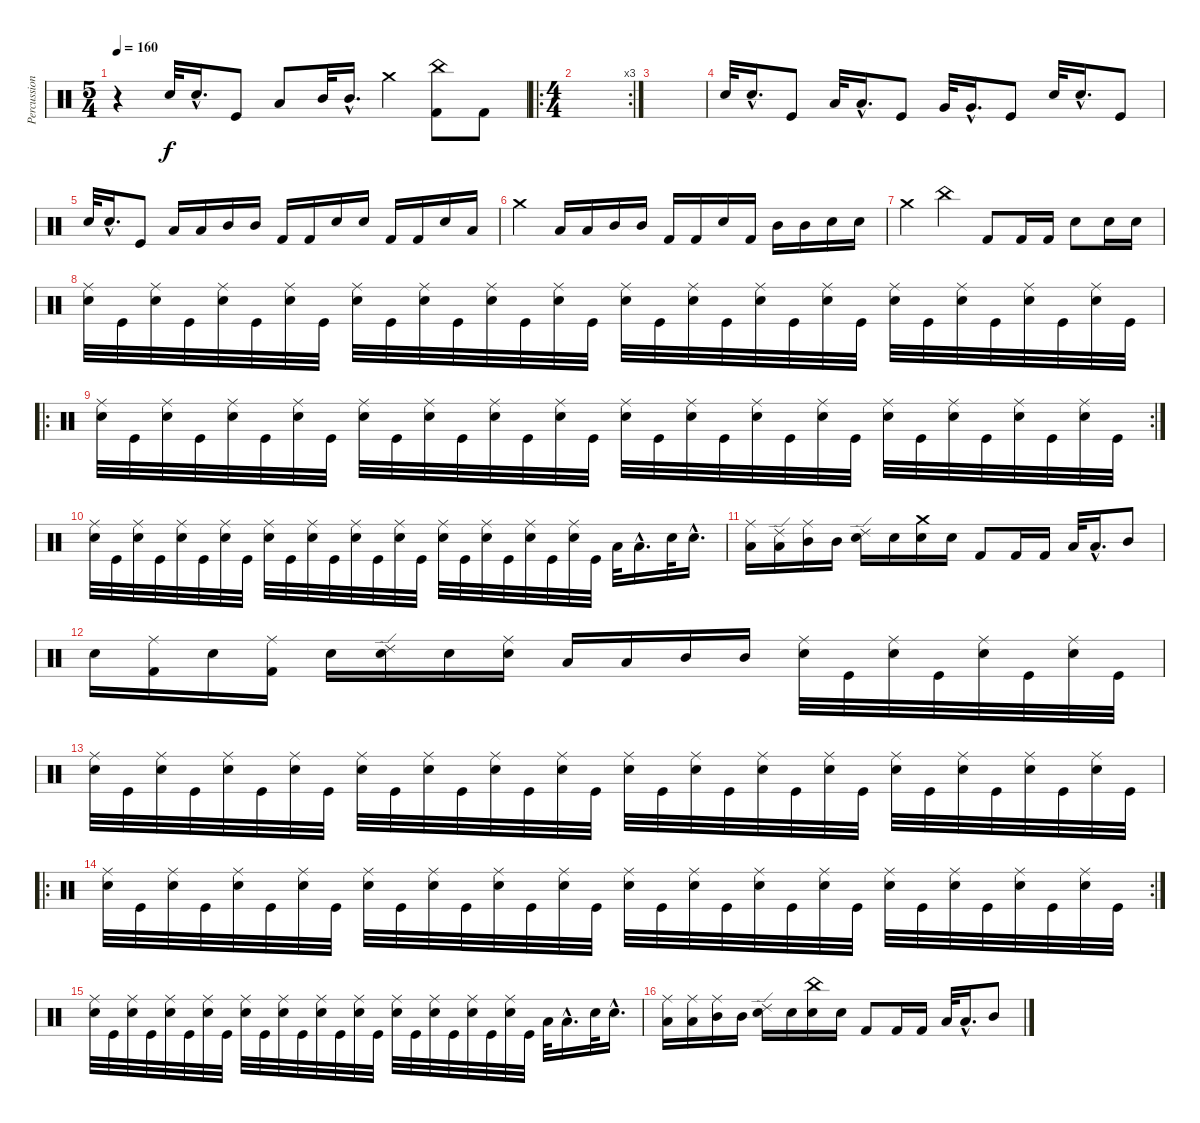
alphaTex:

\track ("Percussion" "Percussion") {instrument percussion}
\staff {score}
\articulation defaults
\ts (5 4)
\tempo 160
\clef neutral
\ks c
r.4{dy f} "Electric Snare (hit)".32 "Electric Snare (hit)"{hac}.16{d} "Kick (hit)".8 "Low Tom (hit)".8 "Mid Tom (hit)".32 "Mid Tom (hit)"{hac}.16{d} "Crash medium (hit)".4 ("China (hit)" "Kick (hit) 2").8 "Kick (hit) 2".8 |
\ro
\rc 3
\ts (4 4)
|
|
"Electric Snare (hit)".32 "Electric Snare (hit)"{hac}.16{d} "Kick (hit)".8 "Low Tom (hit)".32 "Low Tom (hit)"{hac}.16{d} "Kick (hit)".8 "Very Low Tom (hit)".32 "Very Low Tom (hit)"{hac}.16{d} "Kick (hit)".8 "Electric Snare (hit)".32 "Electric Snare (hit)"{hac}.16{d} "Kick (hit)".8 |
"Electric Snare (hit)".32 "Electric Snare (hit)"{hac}.16{d} "Kick (hit)".8 "Low Tom (hit)".16 "Low Tom (hit)".16 "Mid Tom (hit)".16 "Mid Tom (hit)".16 "Kick (hit) 2".16 "Kick (hit) 2".16 "Electric Snare (hit)".16 "Electric Snare (hit)".16 "Kick (hit) 2".16 "Kick (hit) 2".16 "Electric Snare (hit)".16 "Low Floor Tom (hit)".16 |
"Crash medium (hit)".4 "Low Tom (hit)".16 "Low Tom (hit)".16 "Mid Tom (hit)".16 "Mid Tom (hit)".16 "Kick (hit) 2".16 "Kick (hit) 2".16 "Electric Snare (hit)".16 "Kick (hit) 2".16 "Mid Tom (hit)".16 "Mid Tom (hit)".16 "Electric Snare (hit)".16 "Electric Snare (hit)".16 |
"Crash medium (hit)".4 "China (hit)".4 "Kick (hit) 2".8 "Kick (hit) 2".16 "Kick (hit) 2".16 "Electric Snare (hit)".8 "Electric Snare (hit)".16 "Electric Snare (hit)".16 |
("Ride (middle)" "Electric Snare (hit)").32 "Kick (hit)".32 ("Ride (middle)" "Electric Snare (hit)").32 "Kick (hit)".32 ("Ride (middle)" "Electric Snare (hit)").32 "Kick (hit)".32 ("Ride (middle)" "Electric Snare (hit)").32 "Kick (hit)".32 ("Ride (middle)" "Electric Snare (hit)").32 "Kick (hit)".32 ("Ride (middle)" "Electric Snare (hit)").32 "Kick (hit)".32 ("Ride (middle)" "Electric Snare (hit)").32 "Kick (hit)".32 ("Ride (middle)" "Electric Snare (hit)").32 "Kick (hit)".32 ("Ride (middle)" "Electric Snare (hit)").32 "Kick (hit)".32 ("Ride (middle)" "Electric Snare (hit)").32 "Kick (hit)".32 ("Ride (middle)" "Electric Snare (hit)").32 "Kick (hit)".32 ("Ride (middle)" "Electric Snare (hit)").32 "Kick (hit)".32 ("Ride (middle)" "Electric Snare (hit)").32 "Kick (hit)".32 ("Ride (middle)" "Electric Snare (hit)").32 "Kick (hit)".32 ("Ride (middle)" "Electric Snare (hit)").32 "Kick (hit)".32 ("Ride (middle)" "Electric Snare (hit)").32 "Kick (hit)".32 |
\ro
\rc 2
("Ride (middle)" "Electric Snare (hit)").32 "Kick (hit)".32 ("Ride (middle)" "Electric Snare (hit)").32 "Kick (hit)".32 ("Ride (middle)" "Electric Snare (hit)").32 "Kick (hit)".32 ("Ride (middle)" "Electric Snare (hit)").32 "Kick (hit)".32 ("Ride (middle)" "Electric Snare (hit)").32 "Kick (hit)".32 ("Ride (middle)" "Electric Snare (hit)").32 "Kick (hit)".32 ("Ride (middle)" "Electric Snare (hit)").32 "Kick (hit)".32 ("Ride (middle)" "Electric Snare (hit)").32 "Kick (hit)".32 ("Ride (middle)" "Electric Snare (hit)").32 "Kick (hit)".32 ("Ride (middle)" "Electric Snare (hit)").32 "Kick (hit)".32 ("Ride (middle)" "Electric Snare (hit)").32 "Kick (hit)".32 ("Ride (middle)" "Electric Snare (hit)").32 "Kick (hit)".32 ("Ride (middle)" "Electric Snare (hit)").32 "Kick (hit)".32 ("Ride (middle)" "Electric Snare (hit)").32 "Kick (hit)".32 ("Ride (middle)" "Electric Snare (hit)").32 "Kick (hit)".32 ("Ride (middle)" "Electric Snare (hit)").32 "Kick (hit)".32 |
("Ride (middle)" "Electric Snare (hit)").32 "Kick (hit)".32 ("Ride (middle)" "Electric Snare (hit)").32 "Kick (hit)".32 ("Ride (middle)" "Electric Snare (hit)").32 "Kick (hit)".32 ("Ride (middle)" "Electric Snare (hit)").32 "Kick (hit)".32 ("Ride (middle)" "Electric Snare (hit)").32 "Kick (hit)".32 ("Ride (middle)" "Electric Snare (hit)").32 "Kick (hit)".32 ("Ride (middle)" "Electric Snare (hit)").32 "Kick (hit)".32 ("Ride (middle)" "Electric Snare (hit)").32 "Kick (hit)".32 ("Ride (middle)" "Electric Snare (hit)").32 "Kick (hit)".32 ("Ride (middle)" "Electric Snare (hit)").32 "Kick (hit)".32 ("Ride (middle)" "Electric Snare (hit)").32 "Kick (hit)".32 ("Ride (middle)" "Electric Snare (hit)").32 "Kick (hit)".32 "Low Tom (hit)".32 "Low Tom (hit)"{hac}.16{d} "Electric Snare (hit)".32 "Electric Snare (hit)"{hac}.16{d} |
("Ride (middle)" "Low Tom (hit)").16 ("Ride (edge) 2" "Low Tom (hit)").16 ("Ride (middle)" "Mid Tom (hit)").16 "Mid Tom (hit)".16 ("Ride (edge) 2" "Electric Snare (hit)").16 "Electric Snare (hit)".16 ("Crash medium (hit)" "Electric Snare (hit)").16 "Electric Snare (hit)".16 "Kick (hit) 2".8 "Kick (hit) 2".16 "Kick (hit) 2".16 "Low Tom (hit)".32 "Low Tom (hit)"{hac}.16{d} "Mid Tom (hit)".8 |
"Electric Snare (hit)".16 ("Ride (middle)" "Kick (hit) 2").16 "Electric Snare (hit)".16 ("Ride (middle)" "Kick (hit) 2").16 "Electric Snare (hit)".16 ("Ride (edge) 2" "Electric Snare (hit)").16 "Electric Snare (hit)".16 ("Ride (middle)" "Electric Snare (hit)").16 "Low Tom (hit)".16 "Low Tom (hit)".16 "Mid Tom (hit)".16 "Mid Tom (hit)".16 ("Ride (middle)" "Electric Snare (hit)").32 "Kick (hit)".32 ("Ride (middle)" "Electric Snare (hit)").32 "Kick (hit)".32 ("Ride (middle)" "Electric Snare (hit)").32 "Kick (hit)".32 ("Ride (middle)" "Electric Snare (hit)").32 "Kick (hit)".32 |
("Ride (middle)" "Electric Snare (hit)").32 "Kick (hit)".32 ("Ride (middle)" "Electric Snare (hit)").32 "Kick (hit)".32 ("Ride (middle)" "Electric Snare (hit)").32 "Kick (hit)".32 ("Ride (middle)" "Electric Snare (hit)").32 "Kick (hit)".32 ("Ride (middle)" "Electric Snare (hit)").32 "Kick (hit)".32 ("Ride (middle)" "Electric Snare (hit)").32 "Kick (hit)".32 ("Ride (middle)" "Electric Snare (hit)").32 "Kick (hit)".32 ("Ride (middle)" "Electric Snare (hit)").32 "Kick (hit)".32 ("Ride (middle)" "Electric Snare (hit)").32 "Kick (hit)".32 ("Ride (middle)" "Electric Snare (hit)").32 "Kick (hit)".32 ("Ride (middle)" "Electric Snare (hit)").32 "Kick (hit)".32 ("Ride (middle)" "Electric Snare (hit)").32 "Kick (hit)".32 ("Ride (middle)" "Electric Snare (hit)").32 "Kick (hit)".32 ("Ride (middle)" "Electric Snare (hit)").32 "Kick (hit)".32 ("Ride (middle)" "Electric Snare (hit)").32 "Kick (hit)".32 ("Ride (middle)" "Electric Snare (hit)").32 "Kick (hit)".32 |
\ro
\rc 2
("Ride (middle)" "Electric Snare (hit)").32 "Kick (hit)".32 ("Ride (middle)" "Electric Snare (hit)").32 "Kick (hit)".32 ("Ride (middle)" "Electric Snare (hit)").32 "Kick (hit)".32 ("Ride (middle)" "Electric Snare (hit)").32 "Kick (hit)".32 ("Ride (middle)" "Electric Snare (hit)").32 "Kick (hit)".32 ("Ride (middle)" "Electric Snare (hit)").32 "Kick (hit)".32 ("Ride (middle)" "Electric Snare (hit)").32 "Kick (hit)".32 ("Ride (middle)" "Electric Snare (hit)").32 "Kick (hit)".32 ("Ride (middle)" "Electric Snare (hit)").32 "Kick (hit)".32 ("Ride (middle)" "Electric Snare (hit)").32 "Kick (hit)".32 ("Ride (middle)" "Electric Snare (hit)").32 "Kick (hit)".32 ("Ride (middle)" "Electric Snare (hit)").32 "Kick (hit)".32 ("Ride (middle)" "Electric Snare (hit)").32 "Kick (hit)".32 ("Ride (middle)" "Electric Snare (hit)").32 "Kick (hit)".32 ("Ride (middle)" "Electric Snare (hit)").32 "Kick (hit)".32 ("Ride (middle)" "Electric Snare (hit)").32 "Kick (hit)".32 |
("Ride (middle)" "Electric Snare (hit)").32 "Kick (hit)".32 ("Ride (middle)" "Electric Snare (hit)").32 "Kick (hit)".32 ("Ride (middle)" "Electric Snare (hit)").32 "Kick (hit)".32 ("Ride (middle)" "Electric Snare (hit)").32 "Kick (hit)".32 ("Ride (middle)" "Electric Snare (hit)").32 "Kick (hit)".32 ("Ride (middle)" "Electric Snare (hit)").32 "Kick (hit)".32 ("Ride (middle)" "Electric Snare (hit)").32 "Kick (hit)".32 ("Ride (middle)" "Electric Snare (hit)").32 "Kick (hit)".32 ("Ride (middle)" "Electric Snare (hit)").32 "Kick (hit)".32 ("Ride (middle)" "Electric Snare (hit)").32 "Kick (hit)".32 ("Ride (middle)" "Electric Snare (hit)").32 "Kick (hit)".32 ("Ride (middle)" "Electric Snare (hit)").32 "Kick (hit)".32 "Low Tom (hit)".32 "Low Tom (hit)"{hac}.16{d} "Electric Snare (hit)".32 "Electric Snare (hit)"{hac}.16{d} |
("Ride (middle)" "Low Tom (hit)").16 ("Ride (middle)" "Low Tom (hit)").16 ("Ride (middle)" "Mid Tom (hit)").16 "Mid Tom (hit)".16 ("Ride (edge) 2" "Electric Snare (hit)").16 "Electric Snare (hit)".16 ("China (hit)" "Electric Snare (hit)").16 "Electric Snare (hit)".16 "Kick (hit) 2".8 "Kick (hit) 2".16 "Kick (hit) 2".16 "Low Tom (hit)".32 "Low Tom (hit)"{hac}.16{d} "Mid Tom (hit)".8
